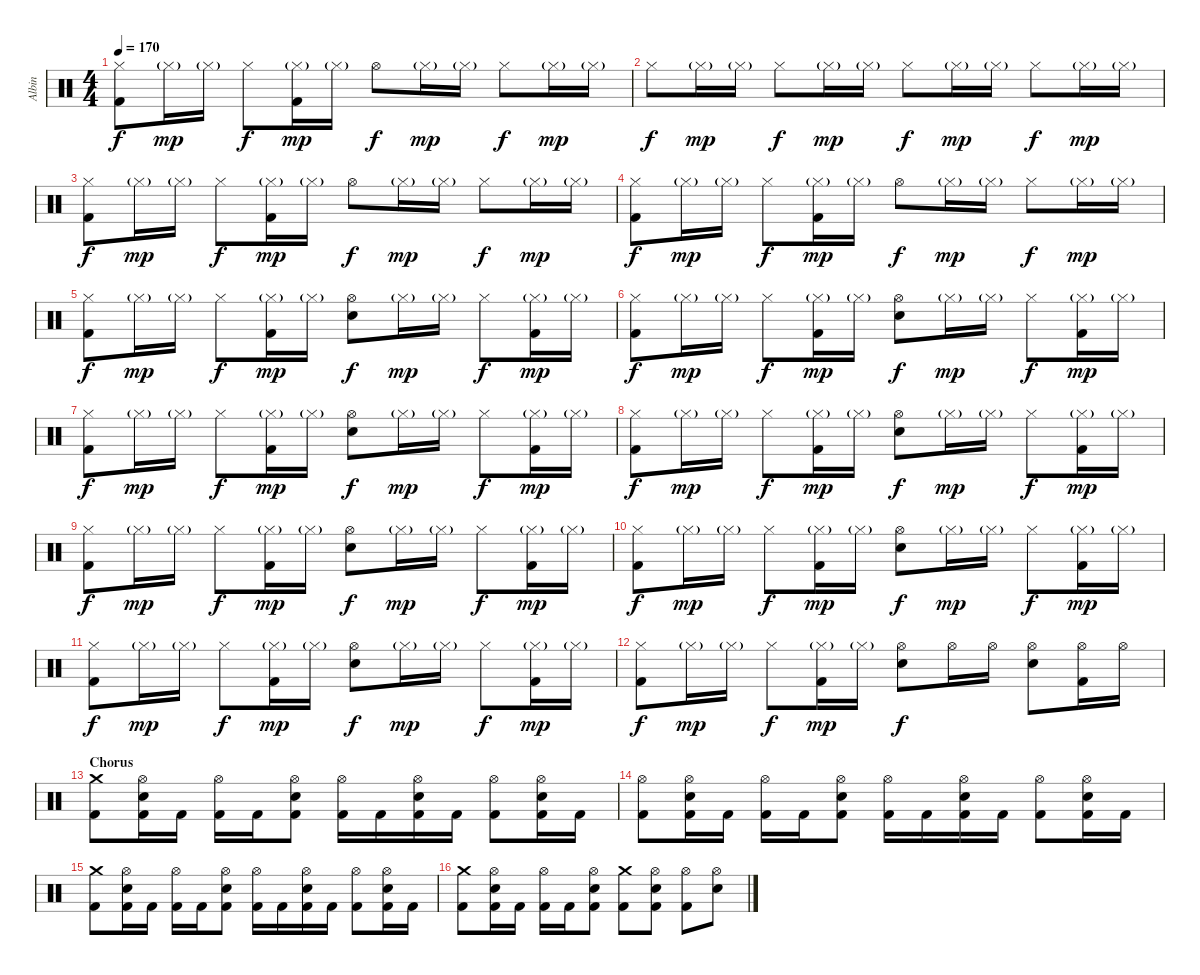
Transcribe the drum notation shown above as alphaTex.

\track ("Albin" "Albin") {instrument percussion}
\staff {score}
\articulation defaults
\ts (4 4)
\tempo 170
\clef neutral
\ks c
("Hi-Hat (closed)" "Kick (hit) 2").8{dy f} "Hi-Hat (closed)"{g}.16{dy mp} "Hi-Hat (closed)"{g}.16 "Hi-Hat (closed)".8{dy f} ("Hi-Hat (closed)"{g} "Kick (hit) 2").16{dy mp} "Hi-Hat (closed)"{g}.16 "Hi-Hat (open)".8{dy f} "Hi-Hat (closed)"{g}.16{dy mp} "Hi-Hat (closed)"{g}.16 "Hi-Hat (closed)".8{dy f} "Hi-Hat (closed)"{g}.16{dy mp} "Hi-Hat (closed)"{g}.16 |
"Hi-Hat (closed)".8{dy f} "Hi-Hat (closed)"{g}.16{dy mp} "Hi-Hat (closed)"{g}.16 "Hi-Hat (closed)".8{dy f} "Hi-Hat (closed)"{g}.16{dy mp} "Hi-Hat (closed)"{g}.16 "Hi-Hat (closed)".8{dy f} "Hi-Hat (closed)"{g}.16{dy mp} "Hi-Hat (closed)"{g}.16 "Hi-Hat (closed)".8{dy f} "Hi-Hat (closed)"{g}.16{dy mp} "Hi-Hat (closed)"{g}.16 |
("Hi-Hat (closed)" "Kick (hit) 2").8{dy f} "Hi-Hat (closed)"{g}.16{dy mp} "Hi-Hat (closed)"{g}.16 "Hi-Hat (closed)".8{dy f} ("Hi-Hat (closed)"{g} "Kick (hit) 2").16{dy mp} "Hi-Hat (closed)"{g}.16 "Hi-Hat (open)".8{dy f} "Hi-Hat (closed)"{g}.16{dy mp} "Hi-Hat (closed)"{g}.16 "Hi-Hat (closed)".8{dy f} "Hi-Hat (closed)"{g}.16{dy mp} "Hi-Hat (closed)"{g}.16 |
("Hi-Hat (closed)" "Kick (hit) 2").8{dy f} "Hi-Hat (closed)"{g}.16{dy mp} "Hi-Hat (closed)"{g}.16 "Hi-Hat (closed)".8{dy f} ("Hi-Hat (closed)"{g} "Kick (hit) 2").16{dy mp} "Hi-Hat (closed)"{g}.16 "Hi-Hat (open)".8{dy f} "Hi-Hat (closed)"{g}.16{dy mp} "Hi-Hat (closed)"{g}.16 "Hi-Hat (closed)".8{dy f} "Hi-Hat (closed)"{g}.16{dy mp} "Hi-Hat (closed)"{g}.16 |
("Hi-Hat (closed)" "Kick (hit) 2").8{dy f} "Hi-Hat (closed)"{g}.16{dy mp} "Hi-Hat (closed)"{g}.16 "Hi-Hat (closed)".8{dy f} ("Hi-Hat (closed)"{g} "Kick (hit) 2").16{dy mp} "Hi-Hat (closed)"{g}.16 ("Hi-Hat (open)" "Electric Snare (hit)").8{dy f} "Hi-Hat (closed)"{g}.16{dy mp} "Hi-Hat (closed)"{g}.16 "Hi-Hat (closed)".8{dy f} ("Hi-Hat (closed)"{g} "Kick (hit) 2").16{dy mp} "Hi-Hat (closed)"{g}.16 |
("Hi-Hat (closed)" "Kick (hit) 2").8{dy f} "Hi-Hat (closed)"{g}.16{dy mp} "Hi-Hat (closed)"{g}.16 "Hi-Hat (closed)".8{dy f} ("Hi-Hat (closed)"{g} "Kick (hit) 2").16{dy mp} "Hi-Hat (closed)"{g}.16 ("Hi-Hat (open)" "Electric Snare (hit)").8{dy f} "Hi-Hat (closed)"{g}.16{dy mp} "Hi-Hat (closed)"{g}.16 "Hi-Hat (closed)".8{dy f} ("Hi-Hat (closed)"{g} "Kick (hit) 2").16{dy mp} "Hi-Hat (closed)"{g}.16 |
("Hi-Hat (closed)" "Kick (hit) 2").8{dy f} "Hi-Hat (closed)"{g}.16{dy mp} "Hi-Hat (closed)"{g}.16 "Hi-Hat (closed)".8{dy f} ("Hi-Hat (closed)"{g} "Kick (hit) 2").16{dy mp} "Hi-Hat (closed)"{g}.16 ("Hi-Hat (open)" "Electric Snare (hit)").8{dy f} "Hi-Hat (closed)"{g}.16{dy mp} "Hi-Hat (closed)"{g}.16 "Hi-Hat (closed)".8{dy f} ("Hi-Hat (closed)"{g} "Kick (hit) 2").16{dy mp} "Hi-Hat (closed)"{g}.16 |
("Hi-Hat (closed)" "Kick (hit) 2").8{dy f} "Hi-Hat (closed)"{g}.16{dy mp} "Hi-Hat (closed)"{g}.16 "Hi-Hat (closed)".8{dy f} ("Hi-Hat (closed)"{g} "Kick (hit) 2").16{dy mp} "Hi-Hat (closed)"{g}.16 ("Hi-Hat (open)" "Electric Snare (hit)").8{dy f} "Hi-Hat (closed)"{g}.16{dy mp} "Hi-Hat (closed)"{g}.16 "Hi-Hat (closed)".8{dy f} ("Hi-Hat (closed)"{g} "Kick (hit) 2").16{dy mp} "Hi-Hat (closed)"{g}.16 |
("Hi-Hat (closed)" "Kick (hit) 2").8{dy f} "Hi-Hat (closed)"{g}.16{dy mp} "Hi-Hat (closed)"{g}.16 "Hi-Hat (closed)".8{dy f} ("Hi-Hat (closed)"{g} "Kick (hit) 2").16{dy mp} "Hi-Hat (closed)"{g}.16 ("Hi-Hat (open)" "Electric Snare (hit)").8{dy f} "Hi-Hat (closed)"{g}.16{dy mp} "Hi-Hat (closed)"{g}.16 "Hi-Hat (closed)".8{dy f} ("Hi-Hat (closed)"{g} "Kick (hit) 2").16{dy mp} "Hi-Hat (closed)"{g}.16 |
("Hi-Hat (closed)" "Kick (hit) 2").8{dy f} "Hi-Hat (closed)"{g}.16{dy mp} "Hi-Hat (closed)"{g}.16 "Hi-Hat (closed)".8{dy f} ("Hi-Hat (closed)"{g} "Kick (hit) 2").16{dy mp} "Hi-Hat (closed)"{g}.16 ("Hi-Hat (open)" "Electric Snare (hit)").8{dy f} "Hi-Hat (closed)"{g}.16{dy mp} "Hi-Hat (closed)"{g}.16 "Hi-Hat (closed)".8{dy f} ("Hi-Hat (closed)"{g} "Kick (hit) 2").16{dy mp} "Hi-Hat (closed)"{g}.16 |
("Hi-Hat (closed)" "Kick (hit) 2").8{dy f} "Hi-Hat (closed)"{g}.16{dy mp} "Hi-Hat (closed)"{g}.16 "Hi-Hat (closed)".8{dy f} ("Hi-Hat (closed)"{g} "Kick (hit) 2").16{dy mp} "Hi-Hat (closed)"{g}.16 ("Hi-Hat (open)" "Electric Snare (hit)").8{dy f} "Hi-Hat (closed)"{g}.16{dy mp} "Hi-Hat (closed)"{g}.16 "Hi-Hat (closed)".8{dy f} ("Hi-Hat (closed)"{g} "Kick (hit) 2").16{dy mp} "Hi-Hat (closed)"{g}.16 |
("Hi-Hat (closed)" "Kick (hit) 2").8{dy f} "Hi-Hat (closed)"{g}.16{dy mp} "Hi-Hat (closed)"{g}.16 "Hi-Hat (closed)".8{dy f} ("Hi-Hat (closed)"{g} "Kick (hit) 2").16{dy mp} "Hi-Hat (closed)"{g}.16 ("Hi-Hat (open)" "Electric Snare (hit)").8{dy f} "Hi-Hat (open)".16 "Hi-Hat (open)".16 ("Hi-Hat (open)" "Electric Snare (hit)").8 ("Hi-Hat (open)" "Kick (hit) 2").16 "Hi-Hat (open)".16 |
\section ("" "Chorus")
("Crash medium (hit)" "Kick (hit) 2").8 ("Hi-Hat (open)" "Electric Snare (hit)" "Kick (hit) 2").16 "Kick (hit) 2".16 ("Hi-Hat (open)" "Kick (hit) 2").16 "Kick (hit) 2".16 ("Hi-Hat (open)" "Electric Snare (hit)" "Kick (hit) 2").8 ("Hi-Hat (open)" "Kick (hit) 2").16 "Kick (hit) 2".16 ("Hi-Hat (open)" "Electric Snare (hit)" "Kick (hit) 2").16 "Kick (hit) 2".16 ("Hi-Hat (open)" "Kick (hit) 2").8 ("Hi-Hat (open)" "Electric Snare (hit)" "Kick (hit) 2").16 "Kick (hit) 2".16 |
("Hi-Hat (open)" "Kick (hit) 2").8 ("Hi-Hat (open)" "Electric Snare (hit)" "Kick (hit) 2").16 "Kick (hit) 2".16 ("Hi-Hat (open)" "Kick (hit) 2").16 "Kick (hit) 2".16 ("Hi-Hat (open)" "Electric Snare (hit)" "Kick (hit) 2").8 ("Hi-Hat (open)" "Kick (hit) 2").16 "Kick (hit) 2".16 ("Hi-Hat (open)" "Electric Snare (hit)" "Kick (hit) 2").16 "Kick (hit) 2".16 ("Hi-Hat (open)" "Kick (hit) 2").8 ("Hi-Hat (open)" "Electric Snare (hit)" "Kick (hit) 2").16 "Kick (hit) 2".16 |
("Crash medium (hit)" "Kick (hit) 2").8 ("Hi-Hat (open)" "Electric Snare (hit)" "Kick (hit) 2").16 "Kick (hit) 2".16 ("Hi-Hat (open)" "Kick (hit) 2").16 "Kick (hit) 2".16 ("Hi-Hat (open)" "Electric Snare (hit)" "Kick (hit) 2").8 ("Hi-Hat (open)" "Kick (hit) 2").16 "Kick (hit) 2".16 ("Hi-Hat (open)" "Electric Snare (hit)" "Kick (hit) 2").16 "Kick (hit) 2".16 ("Hi-Hat (open)" "Kick (hit) 2").8 ("Hi-Hat (open)" "Electric Snare (hit)" "Kick (hit) 2").16 "Kick (hit) 2".16 |
("Crash medium (hit)" "Kick (hit) 2").8 ("Hi-Hat (open)" "Electric Snare (hit)" "Kick (hit) 2").16 "Kick (hit) 2".16 ("Hi-Hat (open)" "Kick (hit) 2").16 "Kick (hit) 2".16 ("Hi-Hat (open)" "Electric Snare (hit)" "Kick (hit) 2").8 ("Crash medium (hit)" "Kick (hit) 2").8 ("Hi-Hat (open)" "Electric Snare (hit)" "Kick (hit) 2").8 ("Hi-Hat (open)" "Kick (hit) 2").8 ("Hi-Hat (open)" "Electric Snare (hit)").8
